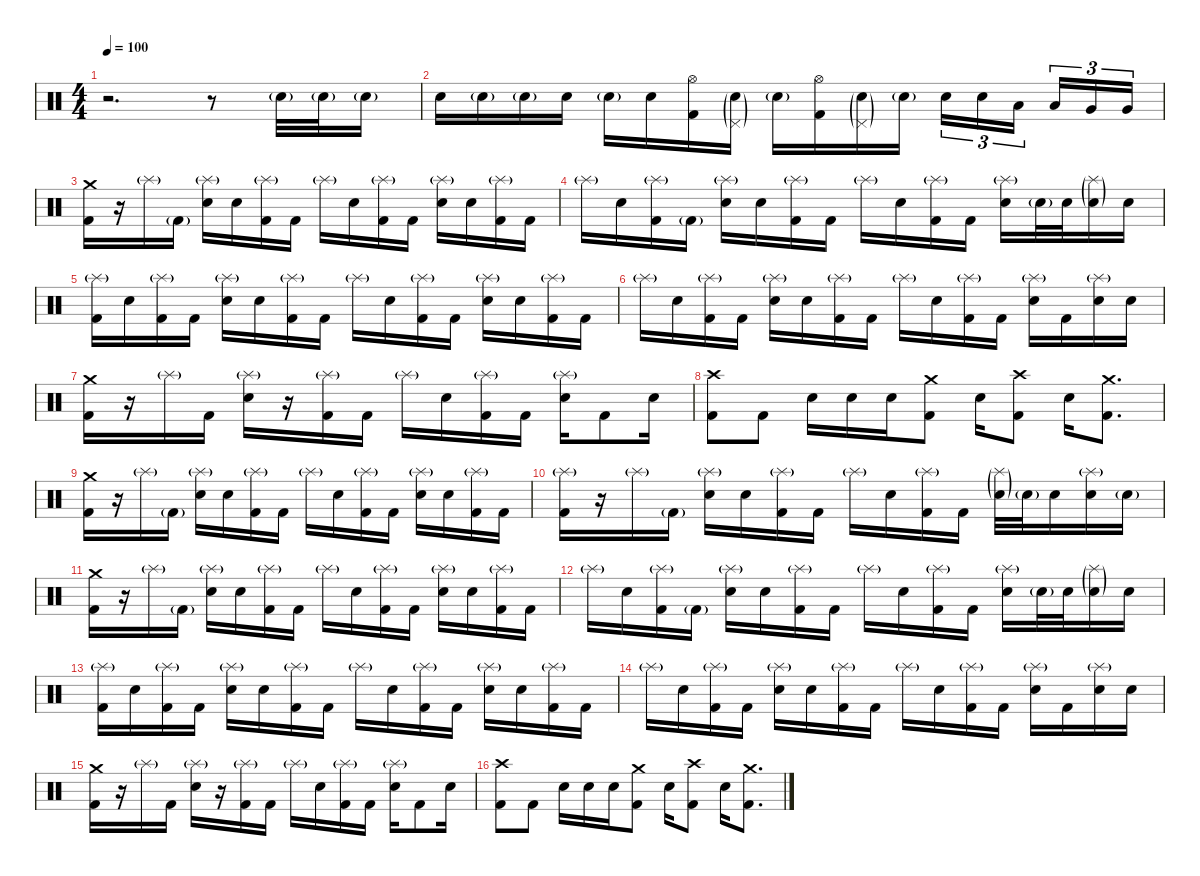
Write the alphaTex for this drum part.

\defaultSystemsLayout 4
\hideDynamics
\bracketExtendMode nobrackets
\singleTrackTrackNamePolicy hidden
\multiTrackTrackNamePolicy hidden
\firstSystemTrackNameMode fullname
\firstSystemTrackNameOrientation horizontal
\otherSystemsTrackNameOrientation horizontal
\track ("Drums" "drm.") {instrument percussion}
\staff {score}
\articulation defaults
\ts (4 4)
\beaming (8 2 2 2 2)
\tempo 100
\clef neutral
\ks c
r.2{d dy f beam Down} r.8{beam Down} "Snare (hit) 2"{g}.32{beam Down} "Snare (hit) 2"{g}.32{beam Down} "Snare (hit) 2"{g}.16{beam Down} |
"Snare (hit) 2".16{beam Down} "Snare (hit) 2"{g}.16{beam Down} "Snare (hit) 2"{g}.16{beam Down} "Snare (hit) 2".16{beam Down} "Snare (hit) 2"{g}.16{beam Down} "Snare (hit) 2".16{beam Down} ("Hi-Hat (open)" "Kick (hit) 2").16{beam Down} ("Pedal Hi-Hat (hit)"{g} "Snare (hit) 2"{g}).16{dy mf beam Down} "Snare (hit) 2"{g}.16{dy f beam Down} ("Hi-Hat (open)" "Kick (hit) 2").16{beam Down} ("Pedal Hi-Hat (hit)"{g} "Snare (hit) 2"{g}).16{dy mf beam Down} "Snare (hit) 2"{g}.16{dy f beam Down} "Snare (hit) 2".16{tu (3 2) beam Down} "Snare (hit) 2".16{tu (3 2) beam Down} "Low Tom (hit)".16{tu (3 2) beam Down} "Low Tom (hit)".16{tu (3 2) beam Up} "Very Low Tom (hit)".16{tu (3 2) beam Up} "Very Low Tom (hit)".16{tu (3 2) beam Up} |
("Crash medium (hit)" "Kick (hit) 2").16{beam Down} r.16{beam Down} "Splash (hit)"{g}.16{dy mf beam Down} "Kick (hit) 2"{g}.16{dy f beam Down} ("Splash (hit)"{g} "Snare (hit) 2").16{beam Down} "Snare (hit) 2".16{beam Down} ("Splash (hit)"{g} "Kick (hit) 2").16{beam Down} "Kick (hit) 2".16{beam Down} "Splash (hit)"{g}.16{dy mf beam Down} "Snare (hit) 2".16{dy f beam Down} ("Splash (hit)"{g} "Kick (hit) 2").16{beam Down} "Kick (hit) 2".16{beam Down} ("Splash (hit)"{g} "Snare (hit) 2").16{beam Down} "Snare (hit) 2".16{beam Down} ("Splash (hit)"{g} "Kick (hit) 2").16{beam Down} "Kick (hit) 2".16{beam Down} |
"Splash (hit)"{g}.16{dy mf beam Down} "Snare (hit) 2".16{dy f beam Down} ("Splash (hit)"{g} "Kick (hit) 2").16{beam Down} "Kick (hit) 2"{g}.16{beam Down} ("Splash (hit)"{g} "Snare (hit) 2").16{beam Down} "Snare (hit) 2".16{beam Down} ("Splash (hit)"{g} "Kick (hit) 2").16{beam Down} "Kick (hit) 2".16{beam Down} "Splash (hit)"{g}.16{dy mf beam Down} "Snare (hit) 2".16{dy f beam Down} ("Splash (hit)"{g} "Kick (hit) 2").16{beam Down} "Kick (hit) 2".16{beam Down} ("Splash (hit)"{g} "Snare (hit) 2").16{beam Down} "Snare (hit) 2"{g}.32{beam Down} "Snare (hit) 2".32{beam Down} ("Splash (hit)"{g} "Snare (hit) 2"{g}).16{dy mf beam Down} "Snare (hit) 2".16{dy f beam Down} |
("Splash (hit)"{g} "Kick (hit) 2").16{beam Down} "Snare (hit) 2".16{beam Down} ("Splash (hit)"{g} "Kick (hit) 2").16{beam Down} "Kick (hit) 2".16{beam Down} ("Splash (hit)"{g} "Snare (hit) 2").16{beam Down} "Snare (hit) 2".16{beam Down} ("Splash (hit)"{g} "Kick (hit) 2").16{beam Down} "Kick (hit) 2".16{beam Down} "Splash (hit)"{g}.16{dy mf beam Down} "Snare (hit) 2".16{dy f beam Down} ("Splash (hit)"{g} "Kick (hit) 2").16{beam Down} "Kick (hit) 2".16{beam Down} ("Splash (hit)"{g} "Snare (hit) 2").16{beam Down} "Snare (hit) 2".16{beam Down} ("Splash (hit)"{g} "Kick (hit) 2").16{beam Down} "Kick (hit) 2".16{beam Down} |
"Splash (hit)"{g}.16{dy mf beam Down} "Snare (hit) 2".16{dy f beam Down} ("Splash (hit)"{g} "Kick (hit) 2").16{beam Down} "Kick (hit) 2".16{beam Down} ("Splash (hit)"{g} "Snare (hit) 2").16{beam Down} "Snare (hit) 2".16{beam Down} ("Splash (hit)"{g} "Kick (hit) 2").16{beam Down} "Kick (hit) 2".16{beam Down} "Splash (hit)"{g}.16{dy mf beam Down} "Snare (hit) 2".16{dy f beam Down} ("Splash (hit)"{g} "Kick (hit) 2").16{beam Down} "Kick (hit) 2".16{beam Down} ("Splash (hit)"{g} "Snare (hit) 2").16{beam Down} "Kick (hit) 2".16{beam Down} ("Splash (hit)"{g} "Snare (hit) 2").16{beam Down} "Snare (hit) 2".16{beam Down} |
("Crash medium (hit)" "Kick (hit) 2").16{beam Down} r.16{beam Down} "Splash (hit)"{g}.16{dy mf beam Down} "Kick (hit) 2".16{dy f beam Down} ("Splash (hit)"{g} "Snare (hit) 2").16{beam Down} r.16{beam Down} ("Splash (hit)"{g} "Kick (hit) 2").16{beam Down} "Kick (hit) 2".16{beam Down} "Splash (hit)"{g}.16{dy mf beam Down} "Snare (hit) 2".16{dy f beam Down} ("Splash (hit)"{g} "Kick (hit) 2").16{beam Down} "Kick (hit) 2".16{beam Down} ("Splash (hit)"{g} "Snare (hit) 2").16{beam Down} "Kick (hit) 2".8{beam Down} "Snare (hit) 2".16{beam Down} |
("Crash high (hit)" "Kick (hit) 2").8{beam Down} "Kick (hit) 2".8{beam Down} "Snare (hit) 2".16{beam Down} "Snare (hit) 2".16{beam Down} "Snare (hit) 2".16{beam Down} ("Crash medium (hit)" "Kick (hit) 2").8{beam Down} "Snare (hit) 2".16{beam Down} ("Crash high (hit)" "Kick (hit) 2").8{beam Down} "Snare (hit) 2".16{beam Down} ("Crash medium (hit)" "Kick (hit) 2").8{d beam Down} |
("Crash medium (hit)" "Kick (hit) 2").16{beam Down} r.16{beam Down} "Splash (hit)"{g}.16{dy mf beam Down} "Kick (hit) 2"{g}.16{dy f beam Down} ("Splash (hit)"{g} "Snare (hit) 2").16{beam Down} "Snare (hit) 2".16{beam Down} ("Splash (hit)"{g} "Kick (hit) 2").16{beam Down} "Kick (hit) 2".16{beam Down} "Splash (hit)"{g}.16{dy mf beam Down} "Snare (hit) 2".16{dy f beam Down} ("Splash (hit)"{g} "Kick (hit) 2").16{beam Down} "Kick (hit) 2".16{beam Down} ("Splash (hit)"{g} "Snare (hit) 2").16{beam Down} "Snare (hit) 2".16{beam Down} ("Splash (hit)"{g} "Kick (hit) 2").16{beam Down} "Kick (hit) 2".16{beam Down} |
("Splash (hit)"{g} "Kick (hit) 2").16{beam Down} r.16{beam Down} "Splash (hit)"{g}.16{dy mf beam Down} "Kick (hit) 2"{g}.16{dy f beam Down} ("Splash (hit)"{g} "Snare (hit) 2").16{beam Down} "Snare (hit) 2".16{beam Down} ("Splash (hit)"{g} "Kick (hit) 2").16{beam Down} "Kick (hit) 2".16{beam Down} "Splash (hit)"{g}.16{dy mf beam Down} "Snare (hit) 2".16{dy f beam Down} ("Splash (hit)"{g} "Kick (hit) 2").16{beam Down} "Kick (hit) 2".16{beam Down} ("Splash (hit)"{g} "Snare (hit) 2"{g}).32{dy mf beam Down} "Snare (hit) 2"{g}.32{dy f beam Down} "Snare (hit) 2".16{beam Down} ("Splash (hit)"{g} "Snare (hit) 2").16{beam Down} "Snare (hit) 2"{g}.16{beam Down} |
("Crash medium (hit)" "Kick (hit) 2").16{beam Down} r.16{beam Down} "Splash (hit)"{g}.16{dy mf beam Down} "Kick (hit) 2"{g}.16{beam Down} ("Splash (hit)"{g} "Snare (hit) 2").16{dy f beam Down} "Snare (hit) 2".16{beam Down} ("Splash (hit)"{g} "Kick (hit) 2").16{beam Down} "Kick (hit) 2".16{beam Down} "Splash (hit)"{g}.16{dy mf beam Down} "Snare (hit) 2".16{dy f beam Down} ("Splash (hit)"{g} "Kick (hit) 2").16{beam Down} "Kick (hit) 2".16{beam Down} ("Splash (hit)"{g} "Snare (hit) 2").16{beam Down} "Snare (hit) 2".16{beam Down} ("Splash (hit)"{g} "Kick (hit) 2").16{beam Down} "Kick (hit) 2".16{beam Down} |
"Splash (hit)"{g}.16{dy mf beam Down} "Snare (hit) 2".16{dy f beam Down} ("Splash (hit)"{g} "Kick (hit) 2").16{beam Down} "Kick (hit) 2"{g}.16{dy mf beam Down} ("Splash (hit)"{g} "Snare (hit) 2").16{dy f beam Down} "Snare (hit) 2".16{beam Down} ("Splash (hit)"{g} "Kick (hit) 2").16{beam Down} "Kick (hit) 2".16{beam Down} "Splash (hit)"{g}.16{dy mf beam Down} "Snare (hit) 2".16{dy f beam Down} ("Splash (hit)"{g} "Kick (hit) 2").16{beam Down} "Kick (hit) 2".16{beam Down} ("Splash (hit)"{g} "Snare (hit) 2").16{beam Down} "Snare (hit) 2"{g}.32{beam Down} "Snare (hit) 2".32{beam Down} ("Splash (hit)"{g} "Snare (hit) 2"{g}).16{dy mf beam Down} "Snare (hit) 2".16{dy f beam Down} |
("Splash (hit)"{g} "Kick (hit) 2").16{beam Down} "Snare (hit) 2".16{beam Down} ("Splash (hit)"{g} "Kick (hit) 2").16{beam Down} "Kick (hit) 2".16{beam Down} ("Splash (hit)"{g} "Snare (hit) 2").16{beam Down} "Snare (hit) 2".16{beam Down} ("Splash (hit)"{g} "Kick (hit) 2").16{beam Down} "Kick (hit) 2".16{beam Down} "Splash (hit)"{g}.16{dy mf beam Down} "Snare (hit) 2".16{dy f beam Down} ("Splash (hit)"{g} "Kick (hit) 2").16{beam Down} "Kick (hit) 2".16{beam Down} ("Splash (hit)"{g} "Snare (hit) 2").16{beam Down} "Snare (hit) 2".16{beam Down} ("Splash (hit)"{g} "Kick (hit) 2").16{beam Down} "Kick (hit) 2".16{beam Down} |
"Splash (hit)"{g}.16{dy mf beam Down} "Snare (hit) 2".16{dy f beam Down} ("Splash (hit)"{g} "Kick (hit) 2").16{beam Down} "Kick (hit) 2".16{beam Down} ("Splash (hit)"{g} "Snare (hit) 2").16{beam Down} "Snare (hit) 2".16{beam Down} ("Splash (hit)"{g} "Kick (hit) 2").16{beam Down} "Kick (hit) 2".16{beam Down} "Splash (hit)"{g}.16{dy mf beam Down} "Snare (hit) 2".16{dy f beam Down} ("Splash (hit)"{g} "Kick (hit) 2").16{beam Down} "Kick (hit) 2".16{beam Down} ("Splash (hit)"{g} "Snare (hit) 2").16{beam Down} "Kick (hit) 2".16{beam Down} ("Splash (hit)"{g} "Snare (hit) 2").16{beam Down} "Snare (hit) 2".16{beam Down} |
("Crash medium (hit)" "Kick (hit) 2").16{beam Down} r.16{beam Down} "Splash (hit)"{g}.16{dy mf beam Down} "Kick (hit) 2".16{dy f beam Down} ("Splash (hit)"{g} "Snare (hit) 2").16{beam Down} r.16{beam Down} ("Splash (hit)"{g} "Kick (hit) 2").16{beam Down} "Kick (hit) 2".16{beam Down} "Splash (hit)"{g}.16{dy mf beam Down} "Snare (hit) 2".16{dy f beam Down} ("Splash (hit)"{g} "Kick (hit) 2").16{beam Down} "Kick (hit) 2".16{beam Down} ("Splash (hit)"{g} "Snare (hit) 2").16{beam Down} "Kick (hit) 2".8{beam Down} "Snare (hit) 2".16{beam Down} |
("Crash high (hit)" "Kick (hit) 2").8{beam Down} "Kick (hit) 2".8{beam Down} "Snare (hit) 2".16{beam Down} "Snare (hit) 2".16{beam Down} "Snare (hit) 2".16{beam Down} ("Crash medium (hit)" "Kick (hit) 2").8{beam Down} "Snare (hit) 2".16{beam Down} ("Crash high (hit)" "Kick (hit) 2").8{beam Down} "Snare (hit) 2".16{beam Down} ("Crash medium (hit)" "Kick (hit) 2").8{d beam Down}
